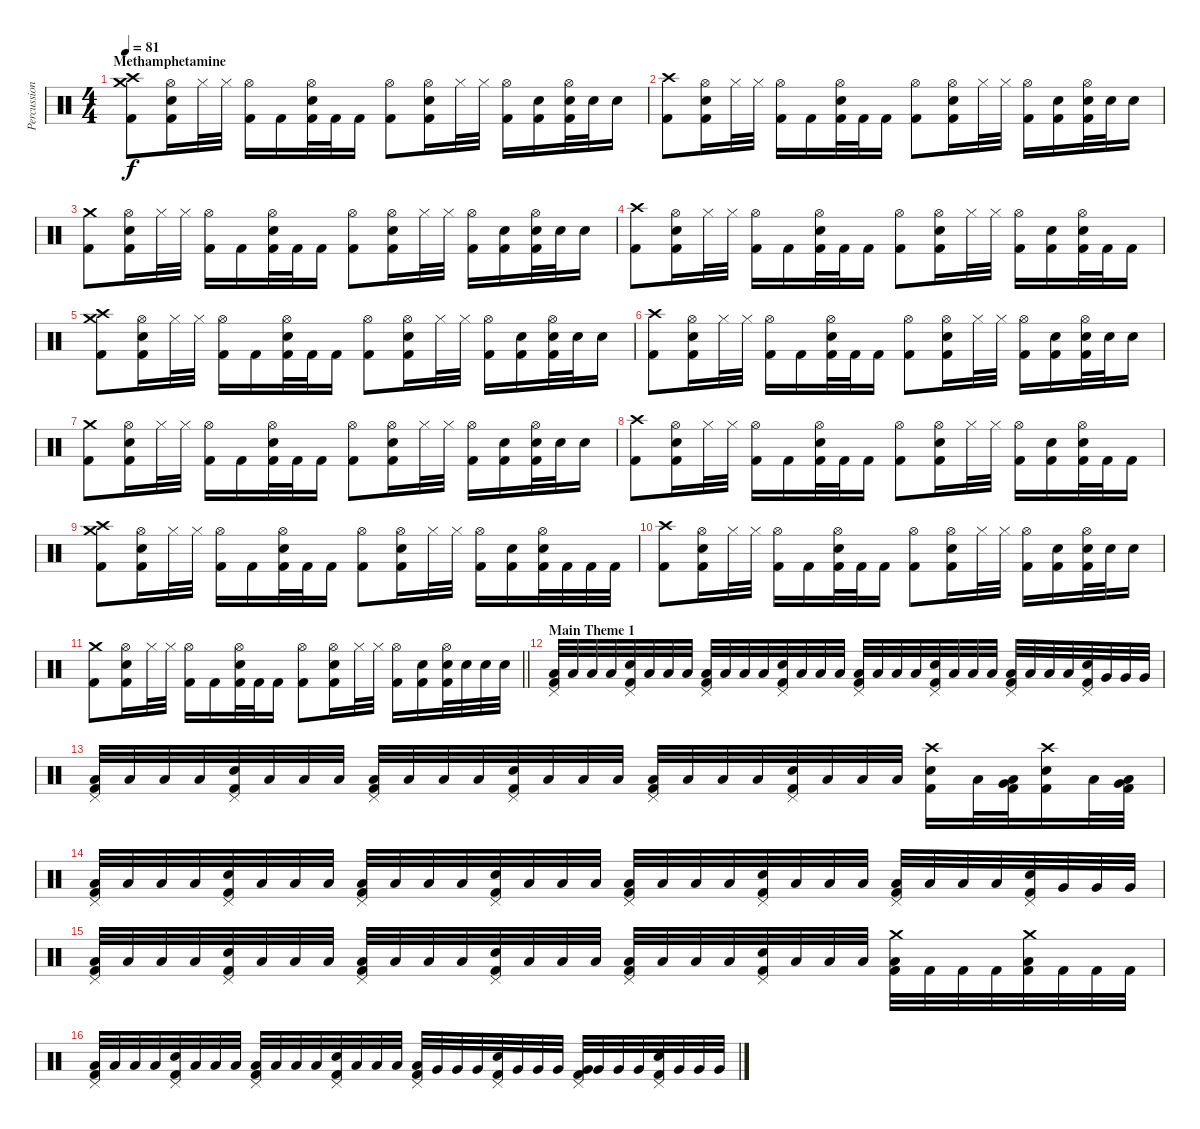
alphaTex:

\track ("Percussion" "Percussion") {instrument percussion}
\staff {score}
\articulation defaults
\ts (4 4)
\section ("" "Methamphetamine")
\tempo 81
\clef neutral
\ks c
("Crash high (hit)" "Crash medium (hit)" "Kick (hit) 2").8{dy f} ("Hi-Hat (open)" "Electric Snare (hit)" "Kick (hit) 2").16 "Hi-Hat (closed)".32 "Hi-Hat (closed)".32 ("Hi-Hat (open)" "Kick (hit) 2").16 "Kick (hit) 2".16 ("Hi-Hat (open)" "Electric Snare (hit)" "Kick (hit) 2").32 "Kick (hit) 2".32 "Kick (hit) 2".16 ("Hi-Hat (open)" "Kick (hit) 2").8 ("Hi-Hat (open)" "Electric Snare (hit)" "Kick (hit) 2").16 "Hi-Hat (closed)".32 "Hi-Hat (closed)".32 ("Hi-Hat (open)" "Kick (hit) 2").16 ("Electric Snare (hit)" "Kick (hit) 2").16 ("Hi-Hat (open)" "Electric Snare (hit)" "Kick (hit) 2").32 "Electric Snare (hit)".32 "Electric Snare (hit)".16 |
("Crash high (hit)" "Kick (hit) 2").8 ("Hi-Hat (open)" "Electric Snare (hit)" "Kick (hit) 2").16 "Hi-Hat (closed)".32 "Hi-Hat (closed)".32 ("Hi-Hat (open)" "Kick (hit) 2").16 "Kick (hit) 2".16 ("Hi-Hat (open)" "Electric Snare (hit)" "Kick (hit) 2").32 "Kick (hit) 2".32 "Kick (hit) 2".16 ("Hi-Hat (open)" "Kick (hit) 2").8 ("Hi-Hat (open)" "Electric Snare (hit)" "Kick (hit) 2").16 "Hi-Hat (closed)".32 "Hi-Hat (closed)".32 ("Hi-Hat (open)" "Kick (hit) 2").16 ("Electric Snare (hit)" "Kick (hit) 2").16 ("Hi-Hat (open)" "Electric Snare (hit)" "Kick (hit) 2").32 "Electric Snare (hit)".32 "Electric Snare (hit)".16 |
("Crash medium (hit)" "Kick (hit) 2").8 ("Hi-Hat (open)" "Electric Snare (hit)" "Kick (hit) 2").16 "Hi-Hat (closed)".32 "Hi-Hat (closed)".32 ("Hi-Hat (open)" "Kick (hit) 2").16 "Kick (hit) 2".16 ("Hi-Hat (open)" "Electric Snare (hit)" "Kick (hit) 2").32 "Kick (hit) 2".32 "Kick (hit) 2".16 ("Hi-Hat (open)" "Kick (hit) 2").8 ("Hi-Hat (open)" "Electric Snare (hit)" "Kick (hit) 2").16 "Hi-Hat (closed)".32 "Hi-Hat (closed)".32 ("Hi-Hat (open)" "Kick (hit) 2").16 ("Electric Snare (hit)" "Kick (hit) 2").16 ("Hi-Hat (open)" "Electric Snare (hit)" "Kick (hit) 2").32 "Electric Snare (hit)".32 "Electric Snare (hit)".16 |
("Crash high (hit)" "Kick (hit) 2").8 ("Hi-Hat (open)" "Electric Snare (hit)" "Kick (hit) 2").16 "Hi-Hat (closed)".32 "Hi-Hat (closed)".32 ("Hi-Hat (open)" "Kick (hit) 2").16 "Kick (hit) 2".16 ("Hi-Hat (open)" "Electric Snare (hit)" "Kick (hit) 2").32 "Kick (hit) 2".32 "Kick (hit) 2".16 ("Hi-Hat (open)" "Kick (hit) 2").8 ("Hi-Hat (open)" "Electric Snare (hit)" "Kick (hit) 2").16 "Hi-Hat (closed)".32 "Hi-Hat (closed)".32 ("Hi-Hat (open)" "Kick (hit) 2").16 ("Electric Snare (hit)" "Kick (hit) 2").16 ("Hi-Hat (open)" "Electric Snare (hit)" "Kick (hit) 2").32 "Kick (hit) 2".32 "Kick (hit) 2".16 |
("Crash high (hit)" "Crash medium (hit)" "Kick (hit) 2").8 ("Hi-Hat (open)" "Electric Snare (hit)" "Kick (hit) 2").16 "Hi-Hat (closed)".32 "Hi-Hat (closed)".32 ("Hi-Hat (open)" "Kick (hit) 2").16 "Kick (hit) 2".16 ("Hi-Hat (open)" "Electric Snare (hit)" "Kick (hit) 2").32 "Kick (hit) 2".32 "Kick (hit) 2".16 ("Hi-Hat (open)" "Kick (hit) 2").8 ("Hi-Hat (open)" "Electric Snare (hit)" "Kick (hit) 2").16 "Hi-Hat (closed)".32 "Hi-Hat (closed)".32 ("Hi-Hat (open)" "Kick (hit) 2").16 ("Electric Snare (hit)" "Kick (hit) 2").16 ("Hi-Hat (open)" "Electric Snare (hit)" "Kick (hit) 2").32 "Electric Snare (hit)".32 "Electric Snare (hit)".16 |
("Crash high (hit)" "Kick (hit) 2").8 ("Hi-Hat (open)" "Electric Snare (hit)" "Kick (hit) 2").16 "Hi-Hat (closed)".32 "Hi-Hat (closed)".32 ("Hi-Hat (open)" "Kick (hit) 2").16 "Kick (hit) 2".16 ("Hi-Hat (open)" "Electric Snare (hit)" "Kick (hit) 2").32 "Kick (hit) 2".32 "Kick (hit) 2".16 ("Hi-Hat (open)" "Kick (hit) 2").8 ("Hi-Hat (open)" "Electric Snare (hit)" "Kick (hit) 2").16 "Hi-Hat (closed)".32 "Hi-Hat (closed)".32 ("Hi-Hat (open)" "Kick (hit) 2").16 ("Electric Snare (hit)" "Kick (hit) 2").16 ("Hi-Hat (open)" "Electric Snare (hit)" "Kick (hit) 2").32 "Electric Snare (hit)".32 "Electric Snare (hit)".16 |
("Crash medium (hit)" "Kick (hit) 2").8 ("Hi-Hat (open)" "Electric Snare (hit)" "Kick (hit) 2").16 "Hi-Hat (closed)".32 "Hi-Hat (closed)".32 ("Hi-Hat (open)" "Kick (hit) 2").16 "Kick (hit) 2".16 ("Hi-Hat (open)" "Electric Snare (hit)" "Kick (hit) 2").32 "Kick (hit) 2".32 "Kick (hit) 2".16 ("Hi-Hat (open)" "Kick (hit) 2").8 ("Hi-Hat (open)" "Electric Snare (hit)" "Kick (hit) 2").16 "Hi-Hat (closed)".32 "Hi-Hat (closed)".32 ("Hi-Hat (open)" "Kick (hit) 2").16 ("Electric Snare (hit)" "Kick (hit) 2").16 ("Hi-Hat (open)" "Electric Snare (hit)" "Kick (hit) 2").32 "Electric Snare (hit)".32 "Electric Snare (hit)".16 |
("Crash high (hit)" "Kick (hit) 2").8 ("Hi-Hat (open)" "Electric Snare (hit)" "Kick (hit) 2").16 "Hi-Hat (closed)".32 "Hi-Hat (closed)".32 ("Hi-Hat (open)" "Kick (hit) 2").16 "Kick (hit) 2".16 ("Hi-Hat (open)" "Electric Snare (hit)" "Kick (hit) 2").32 "Kick (hit) 2".32 "Kick (hit) 2".16 ("Hi-Hat (open)" "Kick (hit) 2").8 ("Hi-Hat (open)" "Electric Snare (hit)" "Kick (hit) 2").16 "Hi-Hat (closed)".32 "Hi-Hat (closed)".32 ("Hi-Hat (open)" "Kick (hit) 2").16 ("Electric Snare (hit)" "Kick (hit) 2").16 ("Hi-Hat (open)" "Electric Snare (hit)" "Kick (hit) 2").32 "Kick (hit) 2".32 "Kick (hit) 2".16 |
("Crash high (hit)" "Crash medium (hit)" "Kick (hit) 2").8 ("Hi-Hat (open)" "Electric Snare (hit)" "Kick (hit) 2").16 "Hi-Hat (closed)".32 "Hi-Hat (closed)".32 ("Hi-Hat (open)" "Kick (hit) 2").16 "Kick (hit) 2".16 ("Hi-Hat (open)" "Electric Snare (hit)" "Kick (hit) 2").32 "Kick (hit) 2".32 "Kick (hit) 2".16 ("Hi-Hat (open)" "Kick (hit) 2").8 ("Hi-Hat (open)" "Electric Snare (hit)" "Kick (hit) 2").16 "Hi-Hat (closed)".32 "Hi-Hat (closed)".32 ("Hi-Hat (open)" "Kick (hit) 2").16 ("Electric Snare (hit)" "Kick (hit) 2").16 ("Hi-Hat (open)" "Electric Snare (hit)" "Kick (hit) 2").32 "Kick (hit) 2".32 "Kick (hit) 2".32 "Kick (hit) 2".32 |
("Crash high (hit)" "Kick (hit) 2").8 ("Hi-Hat (open)" "Electric Snare (hit)" "Kick (hit) 2").16 "Hi-Hat (closed)".32 "Hi-Hat (closed)".32 ("Hi-Hat (open)" "Kick (hit) 2").16 "Kick (hit) 2".16 ("Hi-Hat (open)" "Electric Snare (hit)" "Kick (hit) 2").32 "Kick (hit) 2".32 "Kick (hit) 2".16 ("Hi-Hat (open)" "Kick (hit) 2").8 ("Hi-Hat (open)" "Electric Snare (hit)" "Kick (hit) 2").16 "Hi-Hat (closed)".32 "Hi-Hat (closed)".32 ("Hi-Hat (open)" "Kick (hit) 2").16 ("Electric Snare (hit)" "Kick (hit) 2").16 ("Hi-Hat (open)" "Electric Snare (hit)" "Kick (hit) 2").32 "Electric Snare (hit)".32 "Electric Snare (hit)".16 |
\barLineRight lightlight
("Crash medium (hit)" "Kick (hit) 2").8 ("Hi-Hat (open)" "Electric Snare (hit)" "Kick (hit) 2").16 "Hi-Hat (closed)".32 "Hi-Hat (closed)".32 ("Hi-Hat (open)" "Kick (hit) 2").16 "Kick (hit) 2".16 ("Hi-Hat (open)" "Electric Snare (hit)" "Kick (hit) 2").32 "Kick (hit) 2".32 "Kick (hit) 2".16 ("Hi-Hat (open)" "Kick (hit) 2").8 ("Hi-Hat (open)" "Electric Snare (hit)" "Kick (hit) 2").16 "Hi-Hat (closed)".32 "Hi-Hat (closed)".32 ("Hi-Hat (open)" "Kick (hit) 2").16 ("Electric Snare (hit)" "Kick (hit) 2").16 ("Hi-Hat (open)" "Electric Snare (hit)" "Kick (hit) 2").32 "Electric Snare (hit)".32 "Electric Snare (hit)".32 "Electric Snare (hit)".32 |
\section ("" "Main Theme 1")
("Pedal Hi-Hat (hit)" "Low Floor Tom (hit)" "Kick (hit) 2").32 "Low Floor Tom (hit)".32 "Low Floor Tom (hit)".32 "Low Floor Tom (hit)".32 ("Pedal Hi-Hat (hit)" "Electric Snare (hit)" "Kick (hit) 2").32 "Low Floor Tom (hit)".32 "Low Floor Tom (hit)".32 "Low Floor Tom (hit)".32 ("Pedal Hi-Hat (hit)" "Low Floor Tom (hit)" "Kick (hit) 2").32 "Low Floor Tom (hit)".32 "Low Floor Tom (hit)".32 "Low Floor Tom (hit)".32 ("Pedal Hi-Hat (hit)" "Electric Snare (hit)" "Kick (hit) 2").32 "Low Floor Tom (hit)".32 "Low Floor Tom (hit)".32 "Low Floor Tom (hit)".32 ("Pedal Hi-Hat (hit)" "Low Floor Tom (hit)" "Kick (hit) 2").32 "Low Floor Tom (hit)".32 "Low Floor Tom (hit)".32 "Low Floor Tom (hit)".32 ("Pedal Hi-Hat (hit)" "Electric Snare (hit)" "Kick (hit) 2").32 "Low Floor Tom (hit)".32 "Low Floor Tom (hit)".32 "Low Floor Tom (hit)".32 ("Pedal Hi-Hat (hit)" "Low Floor Tom (hit)" "Kick (hit) 2").32 "Low Floor Tom (hit)".32 "Low Floor Tom (hit)".32 "Low Floor Tom (hit)".32 ("Pedal Hi-Hat (hit)" "Electric Snare (hit)" "Kick (hit) 2").32 "Very Low Tom (hit)".32 "Very Low Tom (hit)".32 "Very Low Tom (hit)".32 |
("Pedal Hi-Hat (hit)" "Low Floor Tom (hit)" "Kick (hit) 2").32 "Low Floor Tom (hit)".32 "Low Floor Tom (hit)".32 "Low Floor Tom (hit)".32 ("Pedal Hi-Hat (hit)" "Electric Snare (hit)" "Kick (hit) 2").32 "Low Floor Tom (hit)".32 "Low Floor Tom (hit)".32 "Low Floor Tom (hit)".32 ("Pedal Hi-Hat (hit)" "Low Floor Tom (hit)" "Kick (hit) 2").32 "Low Floor Tom (hit)".32 "Low Floor Tom (hit)".32 "Low Floor Tom (hit)".32 ("Pedal Hi-Hat (hit)" "Electric Snare (hit)" "Kick (hit) 2").32 "Low Floor Tom (hit)".32 "Low Floor Tom (hit)".32 "Low Floor Tom (hit)".32 ("Pedal Hi-Hat (hit)" "Low Floor Tom (hit)" "Kick (hit) 2").32 "Low Floor Tom (hit)".32 "Low Floor Tom (hit)".32 "Low Floor Tom (hit)".32 ("Pedal Hi-Hat (hit)" "Electric Snare (hit)" "Kick (hit) 2").32 "Low Floor Tom (hit)".32 "Low Floor Tom (hit)".32 "Low Floor Tom (hit)".32 ("Crash high (hit)" "Electric Snare (hit)" "Kick (hit) 2").16 "Low Floor Tom (hit)".32 ("Very Low Tom (hit)" "Low Floor Tom (hit)" "Kick (hit) 2").32 ("Crash high (hit)" "Electric Snare (hit)" "Kick (hit) 2").16 "Low Floor Tom (hit)".32 ("Very Low Tom (hit)" "Low Floor Tom (hit)" "Kick (hit) 2").32 |
("Pedal Hi-Hat (hit)" "Low Floor Tom (hit)" "Kick (hit) 2").32 "Low Floor Tom (hit)".32 "Low Floor Tom (hit)".32 "Low Floor Tom (hit)".32 ("Pedal Hi-Hat (hit)" "Electric Snare (hit)" "Kick (hit) 2").32 "Low Floor Tom (hit)".32 "Low Floor Tom (hit)".32 "Low Floor Tom (hit)".32 ("Pedal Hi-Hat (hit)" "Low Floor Tom (hit)" "Kick (hit) 2").32 "Low Floor Tom (hit)".32 "Low Floor Tom (hit)".32 "Low Floor Tom (hit)".32 ("Pedal Hi-Hat (hit)" "Electric Snare (hit)" "Kick (hit) 2").32 "Low Floor Tom (hit)".32 "Low Floor Tom (hit)".32 "Low Floor Tom (hit)".32 ("Pedal Hi-Hat (hit)" "Low Floor Tom (hit)" "Kick (hit) 2").32 "Low Floor Tom (hit)".32 "Low Floor Tom (hit)".32 "Low Floor Tom (hit)".32 ("Pedal Hi-Hat (hit)" "Electric Snare (hit)" "Kick (hit) 2").32 "Low Floor Tom (hit)".32 "Low Floor Tom (hit)".32 "Low Floor Tom (hit)".32 ("Pedal Hi-Hat (hit)" "Low Floor Tom (hit)" "Kick (hit) 2").32 "Low Floor Tom (hit)".32 "Low Floor Tom (hit)".32 "Low Floor Tom (hit)".32 ("Pedal Hi-Hat (hit)" "Electric Snare (hit)" "Kick (hit) 2").32 "Very Low Tom (hit)".32 "Very Low Tom (hit)".32 "Very Low Tom (hit)".32 |
("Pedal Hi-Hat (hit)" "Low Floor Tom (hit)" "Kick (hit) 2").32 "Low Floor Tom (hit)".32 "Low Floor Tom (hit)".32 "Low Floor Tom (hit)".32 ("Pedal Hi-Hat (hit)" "Electric Snare (hit)" "Kick (hit) 2").32 "Low Floor Tom (hit)".32 "Low Floor Tom (hit)".32 "Low Floor Tom (hit)".32 ("Pedal Hi-Hat (hit)" "Low Floor Tom (hit)" "Kick (hit) 2").32 "Low Floor Tom (hit)".32 "Low Floor Tom (hit)".32 "Low Floor Tom (hit)".32 ("Pedal Hi-Hat (hit)" "Electric Snare (hit)" "Kick (hit) 2").32 "Low Floor Tom (hit)".32 "Low Floor Tom (hit)".32 "Low Floor Tom (hit)".32 ("Pedal Hi-Hat (hit)" "Low Floor Tom (hit)" "Kick (hit) 2").32 "Low Floor Tom (hit)".32 "Low Floor Tom (hit)".32 "Low Floor Tom (hit)".32 ("Pedal Hi-Hat (hit)" "Electric Snare (hit)" "Kick (hit) 2").32 "Low Floor Tom (hit)".32 "Low Floor Tom (hit)".32 "Low Floor Tom (hit)".32 ("Crash medium (hit)" "Low Floor Tom (hit)" "Kick (hit) 2").32 "Kick (hit) 2".32 "Kick (hit) 2".32 "Kick (hit) 2".32 ("Crash medium (hit)" "Low Floor Tom (hit)" "Kick (hit) 2").32 "Kick (hit) 2".32 "Kick (hit) 2".32 "Kick (hit) 2".32 |
("Pedal Hi-Hat (hit)" "Low Tom (hit)" "Kick (hit) 2").32 "Low Tom (hit)".32 "Low Tom (hit)".32 "Low Tom (hit)".32 ("Pedal Hi-Hat (hit)" "Electric Snare (hit)" "Kick (hit) 2").32 "Low Tom (hit)".32 "Low Tom (hit)".32 "Low Tom (hit)".32 ("Pedal Hi-Hat (hit)" "Low Tom (hit)" "Kick (hit) 2").32 "Low Tom (hit)".32 "Low Tom (hit)".32 "Low Tom (hit)".32 ("Pedal Hi-Hat (hit)" "Electric Snare (hit)" "Kick (hit) 2").32 "Low Tom (hit)".32 "Low Tom (hit)".32 "Low Tom (hit)".32 ("Pedal Hi-Hat (hit)" "Low Tom (hit)" "Kick (hit) 2").32 "Very Low Tom (hit)".32 "Very Low Tom (hit)".32 "Very Low Tom (hit)".32 ("Pedal Hi-Hat (hit)" "Electric Snare (hit)" "Kick (hit) 2").32 "Very Low Tom (hit)".32 "Very Low Tom (hit)".32 "Very Low Tom (hit)".32 ("Pedal Hi-Hat (hit)" "Very Low Tom (hit)" "Kick (hit) 2").32 "Very Low Tom (hit)".32 "Very Low Tom (hit)".32 "Very Low Tom (hit)".32 ("Pedal Hi-Hat (hit)" "Electric Snare (hit)" "Kick (hit) 2").32 "Very Low Tom (hit)".32 "Very Low Tom (hit)".32 "Very Low Tom (hit)".32
